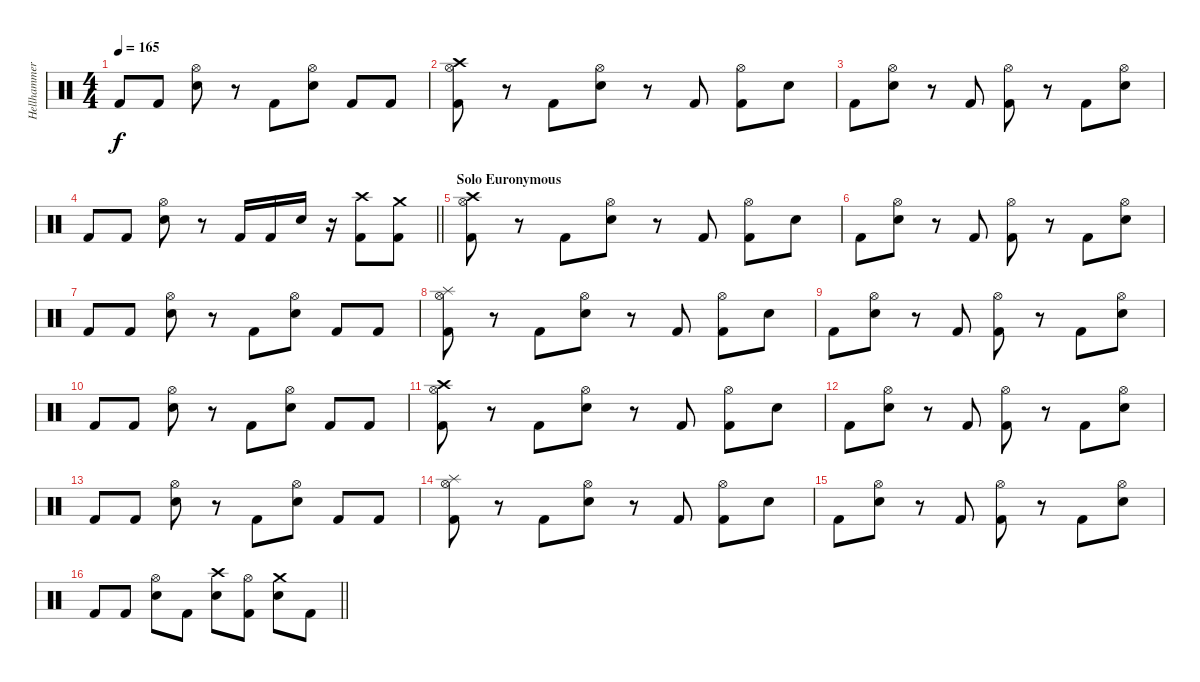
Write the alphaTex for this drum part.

\track ("Hellhammer" "Hellhammer") {instrument percussion}
\staff {score}
\articulation defaults
\ts (4 4)
\tempo 165
\clef neutral
\ks c "Kick (hit) 2".8{dy f} "Kick (hit) 2".8
("Hi-Hat (open)" "Snare (hit) 2").8 r.8 "Kick (hit) 2".8 ("Hi-Hat (open)" "Snare (hit) 2").8 "Kick (hit) 2".8 "Kick (hit) 2".8 |
("Crash high (hit)" "Hi-Hat (open)" "Kick (hit) 2").8 r.8 "Kick (hit) 2".8 ("Hi-Hat (open)" "Snare (hit) 2").8 r.8 "Kick (hit) 2".8 ("Hi-Hat (open)" "Kick (hit) 2").8 "Snare (hit)".8 |
"Kick (hit) 2".8 ("Hi-Hat (open)" "Snare (hit) 2").8 r.8 "Kick (hit) 2".8 ("Hi-Hat (open)" "Kick (hit) 2").8 r.8 "Kick (hit) 2".8 ("Hi-Hat (open)" "Snare (hit) 2").8 |
\barLineRight lightlight "Kick (hit) 2".8 "Kick (hit) 2".8
("Hi-Hat (open)" "Snare (hit) 2").8 r.8 "Kick (hit) 2".16 "Kick (hit) 2".16 "Snare (hit) 2".16 r.16 ("Crash high (hit)" "Kick (hit) 2").8 ("Crash medium (hit)" "Kick (hit) 2").8 |
\section ("" "Solo Euronymous")
("Crash high (hit)" "Hi-Hat (open)" "Kick (hit) 2").8 r.8 "Kick (hit) 2".8 ("Hi-Hat (open)" "Snare (hit) 2").8 r.8 "Kick (hit) 2".8 ("Hi-Hat (open)" "Kick (hit) 2").8 "Snare (hit)".8 |
"Kick (hit) 2".8 ("Hi-Hat (open)" "Snare (hit) 2").8 r.8 "Kick (hit) 2".8 ("Hi-Hat (open)" "Kick (hit) 2").8 r.8 "Kick (hit) 2".8 ("Hi-Hat (open)" "Snare (hit) 2").8 |
"Kick (hit) 2".8 "Kick (hit) 2".8 ("Hi-Hat (open)" "Snare (hit) 2").8 r.8 "Kick (hit) 2".8 ("Hi-Hat (open)" "Snare (hit) 2").8 "Kick (hit) 2".8 "Kick (hit) 2".8 |
("Splash (hit)" "Hi-Hat (open)" "Kick (hit) 2").8 r.8 "Kick (hit) 2".8 ("Hi-Hat (open)" "Snare (hit) 2").8 r.8 "Kick (hit) 2".8 ("Hi-Hat (open)" "Kick (hit) 2").8 "Snare (hit)".8 |
"Kick (hit) 2".8 ("Hi-Hat (open)" "Snare (hit) 2").8 r.8 "Kick (hit) 2".8 ("Hi-Hat (open)" "Kick (hit) 2").8 r.8 "Kick (hit) 2".8 ("Hi-Hat (open)" "Snare (hit) 2").8 |
"Kick (hit) 2".8 "Kick (hit) 2".8 ("Hi-Hat (open)" "Snare (hit) 2").8 r.8 "Kick (hit) 2".8 ("Hi-Hat (open)" "Snare (hit) 2").8 "Kick (hit) 2".8 "Kick (hit) 2".8 |
("Crash high (hit)" "Hi-Hat (open)" "Kick (hit) 2").8 r.8 "Kick (hit) 2".8 ("Hi-Hat (open)" "Snare (hit) 2").8 r.8 "Kick (hit) 2".8 ("Hi-Hat (open)" "Kick (hit) 2").8 "Snare (hit)".8 |
"Kick (hit) 2".8 ("Hi-Hat (open)" "Snare (hit) 2").8 r.8 "Kick (hit) 2".8 ("Hi-Hat (open)" "Kick (hit) 2").8 r.8 "Kick (hit) 2".8 ("Hi-Hat (open)" "Snare (hit) 2").8 |
"Kick (hit) 2".8 "Kick (hit) 2".8 ("Hi-Hat (open)" "Snare (hit) 2").8 r.8 "Kick (hit) 2".8 ("Hi-Hat (open)" "Snare (hit) 2").8 "Kick (hit) 2".8 "Kick (hit) 2".8 |
("Splash (hit)" "Hi-Hat (open)" "Kick (hit) 2").8 r.8 "Kick (hit) 2".8 ("Hi-Hat (open)" "Snare (hit) 2").8 r.8 "Kick (hit) 2".8 ("Hi-Hat (open)" "Kick (hit) 2").8 "Snare (hit)".8 |
"Kick (hit) 2".8 ("Hi-Hat (open)" "Snare (hit) 2").8 r.8 "Kick (hit) 2".8 ("Hi-Hat (open)" "Kick (hit) 2").8 r.8 "Kick (hit) 2".8 ("Hi-Hat (open)" "Snare (hit) 2").8 |
\barLineRight lightlight "Kick (hit) 2".8 "Kick (hit) 2".8
("Hi-Hat (open)" "Snare (hit) 2").8 "Kick (hit) 2".8 ("Crash high (hit)" "Snare (hit) 2").8 ("Hi-Hat (open)" "Kick (hit) 2").8 ("Crash medium (hit)" "Snare (hit) 2").8 "Kick (hit) 2".8
